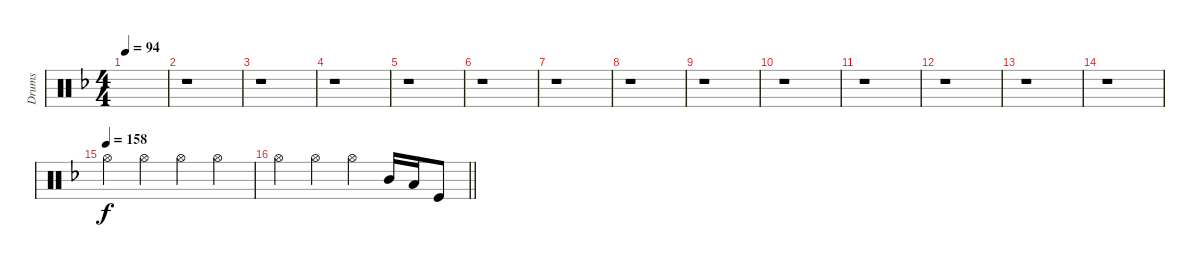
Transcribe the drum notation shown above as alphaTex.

\track ("Drums" "Drums") {instrument percussion}
\staff {score}
\articulation defaults
\ts (4 4)
\tempo 94
\clef neutral
\ks f
|
r.1 |
r.1 |
r.1 |
r.1 |
r.1 |
r.1 |
r.1 |
r.1 |
r.1 |
r.1 |
r.1 |
r.1 |
r.1 |
\tempo (158)
"Hi-Hat (open)".4 "Hi-Hat (open)".4 "Hi-Hat (open)".4 "Hi-Hat (open)".4 |
\barLineRight lightlight "Hi-Hat (open)".4 "Hi-Hat (open)".4 "Hi-Hat (open)".4 "Mid Tom (hit)".16 "Low Tom (hit)".16 "Kick (hit)".8
